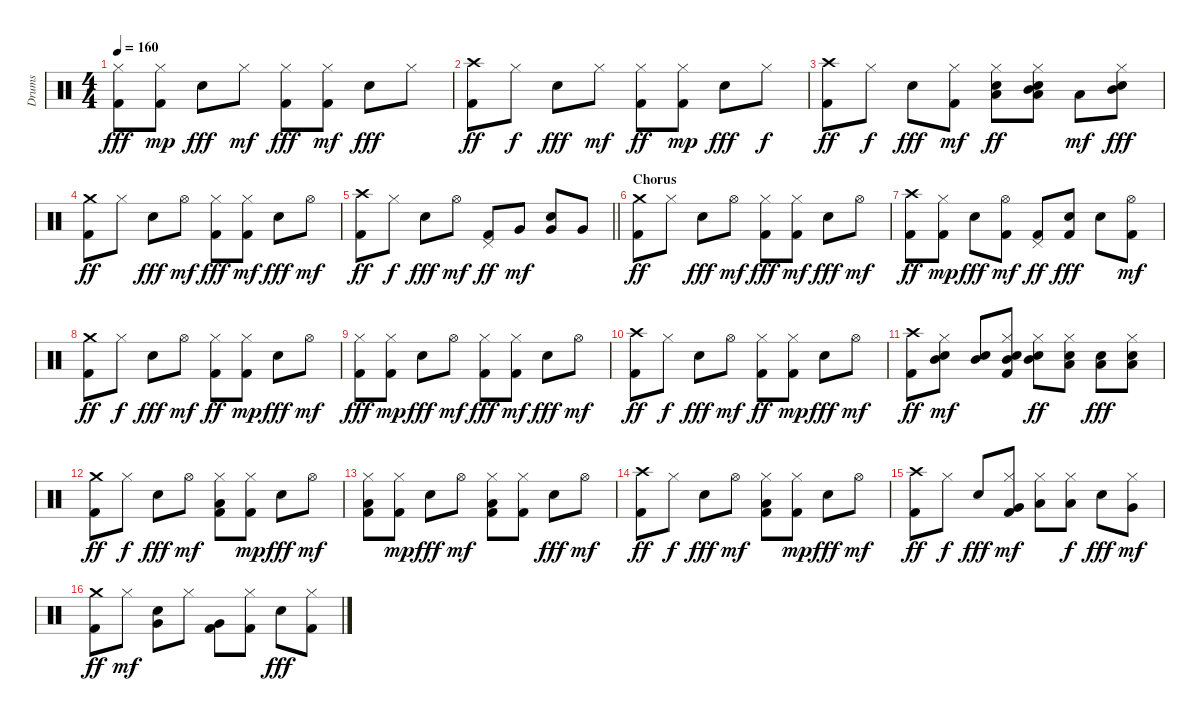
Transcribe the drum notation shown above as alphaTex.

\track ("Drums" "Drums") {instrument percussion}
\staff {score}
\articulation defaults
\ts (4 4)
\tempo 160
\clef neutral
\ks c
("Kick (hit) 2" "Hi-Hat (closed)").8{dy fff} ("Kick (hit) 2" "Hi-Hat (closed)").8{dy mp} "Electric Snare (hit)".8{dy fff} "Hi-Hat (closed)".8{dy mf} ("Kick (hit) 2" "Hi-Hat (closed)").8{dy fff} ("Kick (hit) 2" "Hi-Hat (closed)").8{dy mf} "Electric Snare (hit)".8{dy fff} "Hi-Hat (closed)".8 |
("Kick (hit) 2" "Crash high (hit)").8{dy ff} "Hi-Hat (closed)".8{dy f} "Electric Snare (hit)".8{dy fff} "Hi-Hat (closed)".8{dy mf} ("Kick (hit) 2" "Hi-Hat (closed)").8{dy ff} ("Kick (hit) 2" "Hi-Hat (closed)").8{dy mp} "Electric Snare (hit)".8{dy fff} "Hi-Hat (closed)".8{dy f} |
("Kick (hit) 2" "Crash high (hit)").8{dy ff} "Hi-Hat (closed)".8{dy f} "Electric Snare (hit)".8{dy fff} ("Kick (hit) 2" "Hi-Hat (closed)").8{dy mf} ("Electric Snare (hit)" "Hi-Hat (closed)" "Low Tom (hit)").8{dy ff} ("Electric Snare (hit)" "Hi-Hat (closed)" "Low Tom (hit)" "Mid Tom (hit)").8 "Low Tom (hit)".8{dy mf} ("Electric Snare (hit)" "Hi-Hat (closed)" "Mid Tom (hit)").8{dy fff} |
("Kick (hit) 2" "Crash medium (hit)").8{dy ff} "Hi-Hat (closed)".8 "Electric Snare (hit)".8{dy fff} "Hi-Hat (open)".8{dy mf} ("Kick (hit) 2" "Hi-Hat (closed)").8{dy fff} ("Kick (hit) 2" "Hi-Hat (closed)").8{dy mf} "Electric Snare (hit)".8{dy fff} "Hi-Hat (open)".8{dy mf} |
\barLineRight lightlight
("Kick (hit) 2" "Crash high (hit)").8{dy ff} "Hi-Hat (closed)".8{dy f} "Electric Snare (hit)".8{dy fff} "Hi-Hat (open)".8{dy mf} ("Kick (hit) 2" "Pedal Hi-Hat (hit)").8{dy ff} "Very Low Tom (hit)".8{dy mf} ("Electric Snare (hit)" "Very Low Tom (hit)").8 "Very Low Tom (hit)".8 |
\section ("" "Chorus")
("Kick (hit) 2" "Crash medium (hit)").8{dy ff} "Hi-Hat (closed)".8 "Electric Snare (hit)".8{dy fff} "Hi-Hat (open)".8{dy mf} ("Kick (hit) 2" "Hi-Hat (closed)").8{dy fff} ("Kick (hit) 2" "Hi-Hat (closed)").8{dy mf} "Electric Snare (hit)".8{dy fff} "Hi-Hat (open)".8{dy mf} |
("Kick (hit) 2" "Crash high (hit)").8{dy ff} ("Kick (hit) 2" "Hi-Hat (closed)").8{dy mp} "Electric Snare (hit)".8{dy fff} ("Kick (hit) 2" "Hi-Hat (open)").8{dy mf} ("Kick (hit) 2" "Pedal Hi-Hat (hit)").8{dy ff} ("Kick (hit) 2" "Electric Snare (hit)").8{dy fff} "Electric Snare (hit)".8 ("Kick (hit) 2" "Hi-Hat (open)").8{dy mf} |
("Kick (hit) 2" "Crash medium (hit)").8{dy ff} "Hi-Hat (closed)".8{dy f} "Electric Snare (hit)".8{dy fff} "Hi-Hat (open)".8{dy mf} ("Kick (hit) 2" "Hi-Hat (closed)").8{dy ff} ("Kick (hit) 2" "Hi-Hat (closed)").8{dy mp} "Electric Snare (hit)".8{dy fff} "Hi-Hat (open)".8{dy mf} |
("Kick (hit) 2" "Hi-Hat (closed)").8{dy fff} ("Kick (hit) 2" "Hi-Hat (closed)").8{dy mp} "Electric Snare (hit)".8{dy fff} "Hi-Hat (open)".8{dy mf} ("Kick (hit) 2" "Hi-Hat (closed)").8{dy fff} ("Kick (hit) 2" "Hi-Hat (closed)").8{dy mf} "Electric Snare (hit)".8{dy fff} "Hi-Hat (open)".8{dy mf} |
("Kick (hit) 2" "Crash high (hit)").8{dy ff} "Hi-Hat (closed)".8{dy f} "Electric Snare (hit)".8{dy fff} "Hi-Hat (open)".8{dy mf} ("Kick (hit) 2" "Hi-Hat (closed)").8{dy ff} ("Kick (hit) 2" "Hi-Hat (closed)").8{dy mp} "Electric Snare (hit)".8{dy fff} "Hi-Hat (open)".8{dy mf} |
("Kick (hit) 2" "Crash high (hit)").8{dy ff} ("Electric Snare (hit)" "Hi-Hat (closed)" "Mid Tom (hit)").8{dy mf} ("Electric Snare (hit)" "Mid Tom (hit)").8 ("Kick (hit) 2" "Electric Snare (hit)" "Hi-Hat (closed)" "Mid Tom (hit)").8 ("Electric Snare (hit)" "Hi-Hat (closed)" "Mid Tom (hit)").8{dy ff} ("Electric Snare (hit)" "Hi-Hat (closed)" "Low Tom (hit)").8 ("Electric Snare (hit)" "Low Tom (hit)").8{dy fff} ("Electric Snare (hit)" "Hi-Hat (closed)" "Low Tom (hit)").8 |
("Crash medium (hit)" "Kick (hit) 2").8{dy ff} "Hi-Hat (closed)".8{dy f} "Electric Snare (hit)".8{dy fff} "Hi-Hat (open)".8{dy mf} ("Kick (hit) 2" "Hi-Hat (closed)" "Low Tom (hit)").8 ("Kick (hit) 2" "Hi-Hat (closed)").8{dy mp} "Electric Snare (hit)".8{dy fff} "Hi-Hat (open)".8{dy mf} |
("Kick (hit) 2" "Hi-Hat (closed)" "Low Tom (hit)").8 ("Kick (hit) 2" "Hi-Hat (closed)").8{dy mp} "Electric Snare (hit)".8{dy fff} "Hi-Hat (open)".8{dy mf} ("Kick (hit) 2" "Hi-Hat (closed)" "Low Tom (hit)").8 ("Kick (hit) 2" "Hi-Hat (closed)").8 "Electric Snare (hit)".8{dy fff} "Hi-Hat (open)".8{dy mf} |
("Kick (hit) 2" "Crash high (hit)").8{dy ff} "Hi-Hat (closed)".8{dy f} "Electric Snare (hit)".8{dy fff} "Hi-Hat (open)".8{dy mf} ("Kick (hit) 2" "Hi-Hat (closed)" "Low Tom (hit)").8 ("Kick (hit) 2" "Hi-Hat (closed)").8{dy mp} "Electric Snare (hit)".8{dy fff} "Hi-Hat (open)".8{dy mf} |
("Kick (hit) 2" "Crash high (hit)").8{dy ff} "Hi-Hat (closed)".8{dy f} "Electric Snare (hit)".8{dy fff} ("Kick (hit) 2" "Hi-Hat (closed)" "Very Low Tom (hit)").8{dy mf} ("Hi-Hat (closed)" "Low Tom (hit)").8 ("Hi-Hat (closed)" "Low Tom (hit)").8{dy f} "Electric Snare (hit)".8{dy fff} ("Hi-Hat (closed)" "Very Low Tom (hit)").8{dy mf} |
("Kick (hit) 2" "Crash medium (hit)").8{dy ff} "Hi-Hat (closed)".8{dy mf} ("Electric Snare (hit)" "Very Low Tom (hit)").8 "Hi-Hat (closed)".8 ("Kick (hit) 2" "Very Low Tom (hit)").8 ("Kick (hit) 2" "Hi-Hat (closed)").8 "Electric Snare (hit)".8{dy fff} ("Kick (hit) 2" "Hi-Hat (closed)").8
